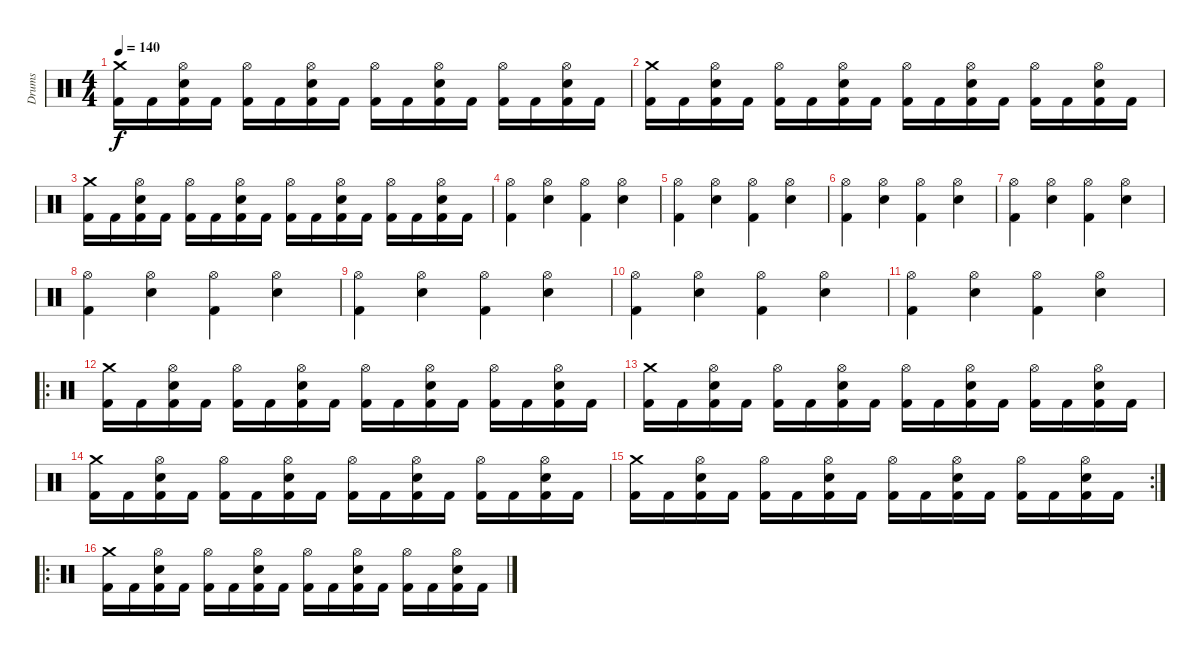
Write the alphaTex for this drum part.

\track ("Drums" "Drums") {instrument percussion}
\staff {score}
\articulation defaults
\ts (4 4)
\tempo 140
\clef neutral
\ks c
("Crash medium (hit)" "Kick (hit) 2").16{dy f} "Kick (hit) 2".16 ("Hi-Hat (open)" "Electric Snare (hit)" "Kick (hit) 2").16 "Kick (hit) 2".16 ("Hi-Hat (open)" "Kick (hit) 2").16 "Kick (hit) 2".16 ("Hi-Hat (open)" "Electric Snare (hit)" "Kick (hit) 2").16 "Kick (hit) 2".16 ("Hi-Hat (open)" "Kick (hit) 2").16 "Kick (hit) 2".16 ("Hi-Hat (open)" "Electric Snare (hit)" "Kick (hit) 2").16 "Kick (hit) 2".16 ("Hi-Hat (open)" "Kick (hit) 2").16 "Kick (hit) 2".16 ("Hi-Hat (open)" "Electric Snare (hit)" "Kick (hit) 2").16 "Kick (hit) 2".16 |
("Crash medium (hit)" "Kick (hit) 2").16 "Kick (hit) 2".16 ("Hi-Hat (open)" "Electric Snare (hit)" "Kick (hit) 2").16 "Kick (hit) 2".16 ("Hi-Hat (open)" "Kick (hit) 2").16 "Kick (hit) 2".16 ("Hi-Hat (open)" "Electric Snare (hit)" "Kick (hit) 2").16 "Kick (hit) 2".16 ("Hi-Hat (open)" "Kick (hit) 2").16 "Kick (hit) 2".16 ("Hi-Hat (open)" "Electric Snare (hit)" "Kick (hit) 2").16 "Kick (hit) 2".16 ("Hi-Hat (open)" "Kick (hit) 2").16 "Kick (hit) 2".16 ("Hi-Hat (open)" "Electric Snare (hit)" "Kick (hit) 2").16 "Kick (hit) 2".16 |
("Crash medium (hit)" "Kick (hit) 2").16 "Kick (hit) 2".16 ("Hi-Hat (open)" "Electric Snare (hit)" "Kick (hit) 2").16 "Kick (hit) 2".16 ("Hi-Hat (open)" "Kick (hit) 2").16 "Kick (hit) 2".16 ("Hi-Hat (open)" "Electric Snare (hit)" "Kick (hit) 2").16 "Kick (hit) 2".16 ("Hi-Hat (open)" "Kick (hit) 2").16 "Kick (hit) 2".16 ("Hi-Hat (open)" "Electric Snare (hit)" "Kick (hit) 2").16 "Kick (hit) 2".16 ("Hi-Hat (open)" "Kick (hit) 2").16 "Kick (hit) 2".16 ("Hi-Hat (open)" "Electric Snare (hit)" "Kick (hit) 2").16 "Kick (hit) 2".16 |
("Hi-Hat (open)" "Kick (hit) 2").4 ("Hi-Hat (open)" "Electric Snare (hit)").4 ("Hi-Hat (open)" "Kick (hit) 2").4 ("Hi-Hat (open)" "Electric Snare (hit)").4 |
("Hi-Hat (open)" "Kick (hit) 2").4 ("Hi-Hat (open)" "Electric Snare (hit)").4 ("Hi-Hat (open)" "Kick (hit) 2").4 ("Hi-Hat (open)" "Electric Snare (hit)").4 |
("Hi-Hat (open)" "Kick (hit) 2").4 ("Hi-Hat (open)" "Electric Snare (hit)").4 ("Hi-Hat (open)" "Kick (hit) 2").4 ("Hi-Hat (open)" "Electric Snare (hit)").4 |
("Hi-Hat (open)" "Kick (hit) 2").4 ("Hi-Hat (open)" "Electric Snare (hit)").4 ("Hi-Hat (open)" "Kick (hit) 2").4 ("Hi-Hat (open)" "Electric Snare (hit)").4 |
("Hi-Hat (open)" "Kick (hit) 2").4 ("Hi-Hat (open)" "Electric Snare (hit)").4 ("Hi-Hat (open)" "Kick (hit) 2").4 ("Hi-Hat (open)" "Electric Snare (hit)").4 |
("Hi-Hat (open)" "Kick (hit) 2").4 ("Hi-Hat (open)" "Electric Snare (hit)").4 ("Hi-Hat (open)" "Kick (hit) 2").4 ("Hi-Hat (open)" "Electric Snare (hit)").4 |
("Hi-Hat (open)" "Kick (hit) 2").4 ("Hi-Hat (open)" "Electric Snare (hit)").4 ("Hi-Hat (open)" "Kick (hit) 2").4 ("Hi-Hat (open)" "Electric Snare (hit)").4 |
("Hi-Hat (open)" "Kick (hit) 2").4 ("Hi-Hat (open)" "Electric Snare (hit)").4 ("Hi-Hat (open)" "Kick (hit) 2").4 ("Hi-Hat (open)" "Electric Snare (hit)").4 |
\ro
("Crash medium (hit)" "Kick (hit) 2").16 "Kick (hit) 2".16 ("Hi-Hat (open)" "Electric Snare (hit)" "Kick (hit) 2").16 "Kick (hit) 2".16 ("Hi-Hat (open)" "Kick (hit) 2").16 "Kick (hit) 2".16 ("Hi-Hat (open)" "Electric Snare (hit)" "Kick (hit) 2").16 "Kick (hit) 2".16 ("Hi-Hat (open)" "Kick (hit) 2").16 "Kick (hit) 2".16 ("Hi-Hat (open)" "Electric Snare (hit)" "Kick (hit) 2").16 "Kick (hit) 2".16 ("Hi-Hat (open)" "Kick (hit) 2").16 "Kick (hit) 2".16 ("Hi-Hat (open)" "Electric Snare (hit)" "Kick (hit) 2").16 "Kick (hit) 2".16 |
("Crash medium (hit)" "Kick (hit) 2").16 "Kick (hit) 2".16 ("Hi-Hat (open)" "Electric Snare (hit)" "Kick (hit) 2").16 "Kick (hit) 2".16 ("Hi-Hat (open)" "Kick (hit) 2").16 "Kick (hit) 2".16 ("Hi-Hat (open)" "Electric Snare (hit)" "Kick (hit) 2").16 "Kick (hit) 2".16 ("Hi-Hat (open)" "Kick (hit) 2").16 "Kick (hit) 2".16 ("Hi-Hat (open)" "Electric Snare (hit)" "Kick (hit) 2").16 "Kick (hit) 2".16 ("Hi-Hat (open)" "Kick (hit) 2").16 "Kick (hit) 2".16 ("Hi-Hat (open)" "Electric Snare (hit)" "Kick (hit) 2").16 "Kick (hit) 2".16 |
("Crash medium (hit)" "Kick (hit) 2").16 "Kick (hit) 2".16 ("Hi-Hat (open)" "Electric Snare (hit)" "Kick (hit) 2").16 "Kick (hit) 2".16 ("Hi-Hat (open)" "Kick (hit) 2").16 "Kick (hit) 2".16 ("Hi-Hat (open)" "Electric Snare (hit)" "Kick (hit) 2").16 "Kick (hit) 2".16 ("Hi-Hat (open)" "Kick (hit) 2").16 "Kick (hit) 2".16 ("Hi-Hat (open)" "Electric Snare (hit)" "Kick (hit) 2").16 "Kick (hit) 2".16 ("Hi-Hat (open)" "Kick (hit) 2").16 "Kick (hit) 2".16 ("Hi-Hat (open)" "Electric Snare (hit)" "Kick (hit) 2").16 "Kick (hit) 2".16 |
\rc 2
("Crash medium (hit)" "Kick (hit) 2").16 "Kick (hit) 2".16 ("Hi-Hat (open)" "Electric Snare (hit)" "Kick (hit) 2").16 "Kick (hit) 2".16 ("Hi-Hat (open)" "Kick (hit) 2").16 "Kick (hit) 2".16 ("Hi-Hat (open)" "Electric Snare (hit)" "Kick (hit) 2").16 "Kick (hit) 2".16 ("Hi-Hat (open)" "Kick (hit) 2").16 "Kick (hit) 2".16 ("Hi-Hat (open)" "Electric Snare (hit)" "Kick (hit) 2").16 "Kick (hit) 2".16 ("Hi-Hat (open)" "Kick (hit) 2").16 "Kick (hit) 2".16 ("Hi-Hat (open)" "Electric Snare (hit)" "Kick (hit) 2").16 "Kick (hit) 2".16 |
\ro
("Crash medium (hit)" "Kick (hit) 2").16 "Kick (hit) 2".16 ("Hi-Hat (open)" "Electric Snare (hit)" "Kick (hit) 2").16 "Kick (hit) 2".16 ("Hi-Hat (open)" "Kick (hit) 2").16 "Kick (hit) 2".16 ("Hi-Hat (open)" "Electric Snare (hit)" "Kick (hit) 2").16 "Kick (hit) 2".16 ("Hi-Hat (open)" "Kick (hit) 2").16 "Kick (hit) 2".16 ("Hi-Hat (open)" "Electric Snare (hit)" "Kick (hit) 2").16 "Kick (hit) 2".16 ("Hi-Hat (open)" "Kick (hit) 2").16 "Kick (hit) 2".16 ("Hi-Hat (open)" "Electric Snare (hit)" "Kick (hit) 2").16 "Kick (hit) 2".16
